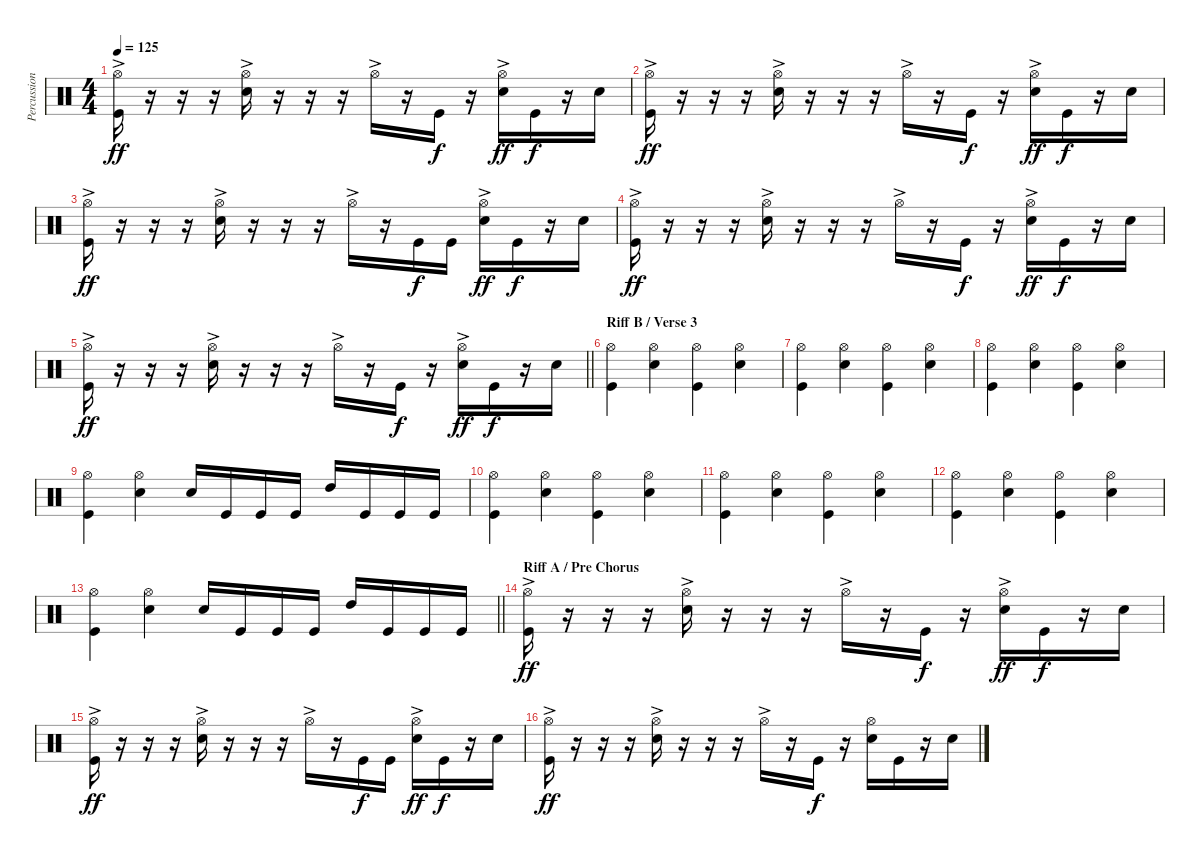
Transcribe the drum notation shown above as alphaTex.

\track ("Percussion" "Percussion") {instrument percussion}
\staff {score}
\articulation defaults
\ts (4 4)
\tempo 125
\clef neutral
\ks c
("Hi-Hat (open)"{ac} "Kick (hit)").16{dy ff} r.16 r.16 r.16 ("Hi-Hat (open)"{ac} "Snare (hit) 2").16 r.16 r.16 r.16 "Hi-Hat (open)"{ac}.16 r.16 "Kick (hit)".16{dy f} r.16 ("Hi-Hat (open)"{ac} "Snare (hit) 2").16{dy ff} "Kick (hit)".16{dy f} r.16 "Snare (hit) 2".16 |
("Hi-Hat (open)"{ac} "Kick (hit)").16{dy ff} r.16 r.16 r.16 ("Hi-Hat (open)"{ac} "Snare (hit) 2").16 r.16 r.16 r.16 "Hi-Hat (open)"{ac}.16 r.16 "Kick (hit)".16{dy f} r.16 ("Hi-Hat (open)"{ac} "Snare (hit) 2").16{dy ff} "Kick (hit)".16{dy f} r.16 "Snare (hit) 2".16 |
("Hi-Hat (open)"{ac} "Kick (hit)").16{dy ff} r.16 r.16 r.16 ("Hi-Hat (open)"{ac} "Snare (hit) 2").16 r.16 r.16 r.16 "Hi-Hat (open)"{ac}.16 r.16 "Kick (hit)".16{dy f} "Kick (hit)".16 ("Hi-Hat (open)"{ac} "Snare (hit) 2").16{dy ff} "Kick (hit)".16{dy f} r.16 "Snare (hit) 2".16 |
("Hi-Hat (open)"{ac} "Kick (hit)").16{dy ff} r.16 r.16 r.16 ("Hi-Hat (open)"{ac} "Snare (hit) 2").16 r.16 r.16 r.16 "Hi-Hat (open)"{ac}.16 r.16 "Kick (hit)".16{dy f} r.16 ("Hi-Hat (open)"{ac} "Snare (hit) 2").16{dy ff} "Kick (hit)".16{dy f} r.16 "Snare (hit) 2".16 |
\barLineRight lightlight
("Hi-Hat (open)"{ac} "Kick (hit)").16{dy ff} r.16 r.16 r.16 ("Hi-Hat (open)"{ac} "Snare (hit) 2").16 r.16 r.16 r.16 "Hi-Hat (open)"{ac}.16 r.16 "Kick (hit)".16{dy f} r.16 ("Hi-Hat (open)"{ac} "Snare (hit) 2").16{dy ff} "Kick (hit)".16{dy f} r.16 "Snare (hit) 2".16 |
\section ("" "Riff B / Verse 3")
("Hi-Hat (open)" "Kick (hit)").4 ("Hi-Hat (open)" "Snare (hit) 2").4 ("Hi-Hat (open)" "Kick (hit)").4 ("Hi-Hat (open)" "Snare (hit) 2").4 |
("Hi-Hat (open)" "Kick (hit)").4 ("Hi-Hat (open)" "Snare (hit) 2").4 ("Hi-Hat (open)" "Kick (hit)").4 ("Hi-Hat (open)" "Snare (hit) 2").4 |
("Hi-Hat (open)" "Kick (hit)").4 ("Hi-Hat (open)" "Snare (hit) 2").4 ("Hi-Hat (open)" "Kick (hit)").4 ("Hi-Hat (open)" "Snare (hit) 2").4 |
("Hi-Hat (open)" "Kick (hit)").4 ("Hi-Hat (open)" "Snare (hit) 2").4 "Snare (hit) 2".16 "Kick (hit)".16 "Kick (hit)".16 "Kick (hit)".16 "High Tom (hit)".16 "Kick (hit)".16 "Kick (hit)".16 "Kick (hit)".16 |
("Hi-Hat (open)" "Kick (hit)").4 ("Hi-Hat (open)" "Snare (hit) 2").4 ("Hi-Hat (open)" "Kick (hit)").4 ("Hi-Hat (open)" "Snare (hit) 2").4 |
("Hi-Hat (open)" "Kick (hit)").4 ("Hi-Hat (open)" "Snare (hit) 2").4 ("Hi-Hat (open)" "Kick (hit)").4 ("Hi-Hat (open)" "Snare (hit) 2").4 |
("Hi-Hat (open)" "Kick (hit)").4 ("Hi-Hat (open)" "Snare (hit) 2").4 ("Hi-Hat (open)" "Kick (hit)").4 ("Hi-Hat (open)" "Snare (hit) 2").4 |
\barLineRight lightlight
("Hi-Hat (open)" "Kick (hit)").4 ("Hi-Hat (open)" "Snare (hit) 2").4 "Snare (hit) 2".16 "Kick (hit)".16 "Kick (hit)".16 "Kick (hit)".16 "High Tom (hit)".16 "Kick (hit)".16 "Kick (hit)".16 "Kick (hit)".16 |
\section ("" "Riff A / Pre Chorus")
("Hi-Hat (open)"{ac} "Kick (hit)").16{dy ff} r.16 r.16 r.16 ("Hi-Hat (open)"{ac} "Snare (hit) 2").16 r.16 r.16 r.16 "Hi-Hat (open)"{ac}.16 r.16 "Kick (hit)".16{dy f} r.16 ("Hi-Hat (open)"{ac} "Snare (hit) 2").16{dy ff} "Kick (hit)".16{dy f} r.16 "Snare (hit) 2".16 |
("Hi-Hat (open)"{ac} "Kick (hit)").16{dy ff} r.16 r.16 r.16 ("Hi-Hat (open)"{ac} "Snare (hit) 2").16 r.16 r.16 r.16 "Hi-Hat (open)"{ac}.16 r.16 "Kick (hit)".16{dy f} "Kick (hit)".16 ("Hi-Hat (open)"{ac} "Snare (hit) 2").16{dy ff} "Kick (hit)".16{dy f} r.16 "Snare (hit) 2".16 |
("Hi-Hat (open)"{ac} "Kick (hit)").16{dy ff} r.16 r.16 r.16 ("Hi-Hat (open)"{ac} "Snare (hit) 2").16 r.16 r.16 r.16 "Hi-Hat (open)"{ac}.16 r.16 "Kick (hit)".16{dy f} r.16 ("Hi-Hat (open)" "Snare (hit) 2").16 "Kick (hit)".16 r.16 "Snare (hit) 2".16
